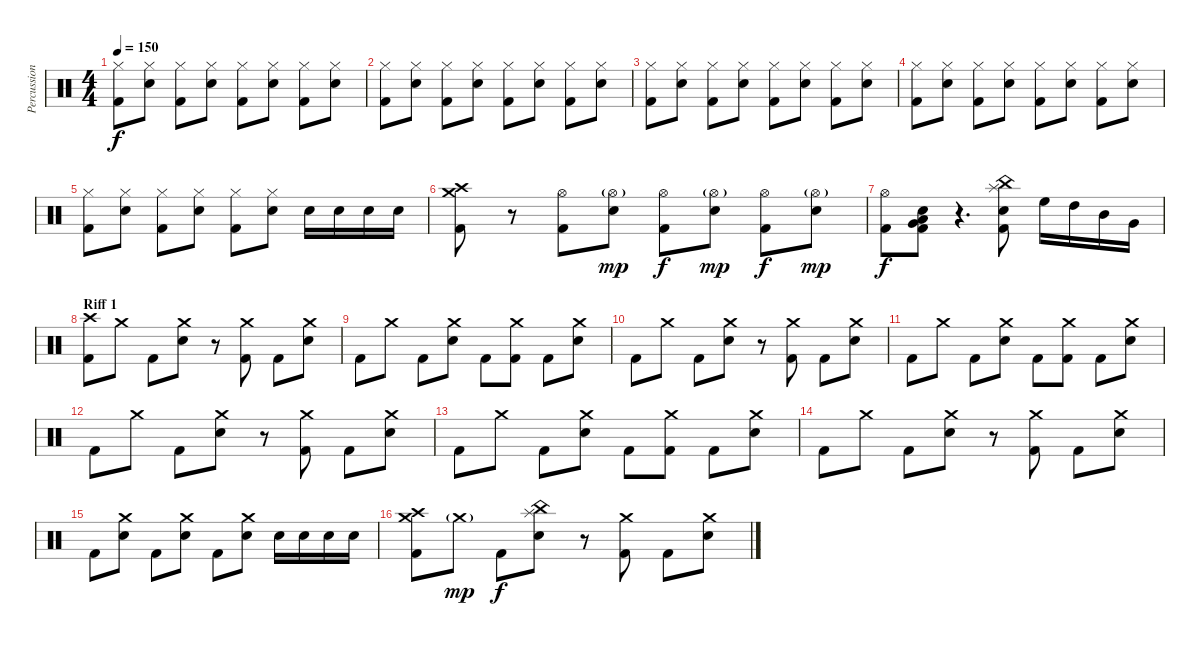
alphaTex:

\track ("Percussion" "Percussion") {instrument percussion}
\staff {score}
\articulation defaults
\ts (4 4)
\tempo 150
\clef neutral
\ks c
("Hi-Hat (closed)" "Kick (hit) 2").8{dy f} ("Hi-Hat (closed)" "Electric Snare (hit)").8 ("Hi-Hat (closed)" "Kick (hit) 2").8 ("Hi-Hat (closed)" "Electric Snare (hit)").8 ("Hi-Hat (closed)" "Kick (hit) 2").8 ("Hi-Hat (closed)" "Electric Snare (hit)").8 ("Hi-Hat (closed)" "Kick (hit) 2").8 ("Hi-Hat (closed)" "Electric Snare (hit)").8 |
("Hi-Hat (closed)" "Kick (hit) 2").8 ("Hi-Hat (closed)" "Electric Snare (hit)").8 ("Hi-Hat (closed)" "Kick (hit) 2").8 ("Hi-Hat (closed)" "Electric Snare (hit)").8 ("Hi-Hat (closed)" "Kick (hit) 2").8 ("Hi-Hat (closed)" "Electric Snare (hit)").8 ("Hi-Hat (closed)" "Kick (hit) 2").8 ("Hi-Hat (closed)" "Electric Snare (hit)").8 |
("Hi-Hat (closed)" "Kick (hit) 2").8 ("Hi-Hat (closed)" "Electric Snare (hit)").8 ("Hi-Hat (closed)" "Kick (hit) 2").8 ("Hi-Hat (closed)" "Electric Snare (hit)").8 ("Hi-Hat (closed)" "Kick (hit) 2").8 ("Hi-Hat (closed)" "Electric Snare (hit)").8 ("Hi-Hat (closed)" "Kick (hit) 2").8 ("Hi-Hat (closed)" "Electric Snare (hit)").8 |
("Hi-Hat (closed)" "Kick (hit) 2").8 ("Hi-Hat (closed)" "Electric Snare (hit)").8 ("Hi-Hat (closed)" "Kick (hit) 2").8 ("Hi-Hat (closed)" "Electric Snare (hit)").8 ("Hi-Hat (closed)" "Kick (hit) 2").8 ("Hi-Hat (closed)" "Electric Snare (hit)").8 ("Hi-Hat (closed)" "Kick (hit) 2").8 ("Hi-Hat (closed)" "Electric Snare (hit)").8 |
("Hi-Hat (closed)" "Kick (hit) 2").8 ("Hi-Hat (closed)" "Electric Snare (hit)").8 ("Hi-Hat (closed)" "Kick (hit) 2").8 ("Hi-Hat (closed)" "Electric Snare (hit)").8 ("Hi-Hat (closed)" "Kick (hit) 2").8 ("Hi-Hat (closed)" "Electric Snare (hit)").8 "Electric Snare (hit)".16 "Electric Snare (hit)".16 "Electric Snare (hit)".16 "Electric Snare (hit)".16 |
("Crash medium (hit)" "Crash high (hit)" "Kick (hit) 2").8 r.8 ("Hi-Hat (open)" "Kick (hit) 2").8 ("Hi-Hat (open)"{g} "Electric Snare (hit)").8{dy mp} ("Hi-Hat (open)" "Kick (hit) 2").8{dy f} ("Hi-Hat (open)"{g} "Electric Snare (hit)").8{dy mp} ("Hi-Hat (open)" "Kick (hit) 2").8{dy f} ("Hi-Hat (open)"{g} "Electric Snare (hit)").8{dy mp} |
("Hi-Hat (open)" "Kick (hit) 2").8{dy f} ("Electric Snare (hit)" "Very Low Tom (hit)" "Low Floor Tom (hit)" "Kick (hit) 2").8 r.4{d} ("Splash (hit)" "China (hit)" "Electric Snare (hit)" "Kick (hit) 2").8 "High Floor Tom (hit)".16 "High Tom (hit)".16 "Mid Tom (hit)".16 "Very Low Tom (hit)".16 |
\section ("" "Riff 1")
("Crash high (hit)" "Kick (hit) 2").8 "Crash medium (hit)".8 "Kick (hit) 2".8 ("Crash medium (hit)" "Electric Snare (hit)").8 r.8 ("Crash medium (hit)" "Kick (hit) 2").8 "Kick (hit) 2".8 ("Crash medium (hit)" "Electric Snare (hit)").8 |
"Kick (hit) 2".8 "Crash medium (hit)".8 "Kick (hit) 2".8 ("Crash medium (hit)" "Electric Snare (hit)").8 "Kick (hit) 2".8 ("Crash medium (hit)" "Kick (hit) 2").8 "Kick (hit) 2".8 ("Crash medium (hit)" "Electric Snare (hit)").8 |
"Kick (hit) 2".8 "Crash medium (hit)".8 "Kick (hit) 2".8 ("Crash medium (hit)" "Electric Snare (hit)").8 r.8 ("Crash medium (hit)" "Kick (hit) 2").8 "Kick (hit) 2".8 ("Crash medium (hit)" "Electric Snare (hit)").8 |
"Kick (hit) 2".8 "Crash medium (hit)".8 "Kick (hit) 2".8 ("Crash medium (hit)" "Electric Snare (hit)").8 "Kick (hit) 2".8 ("Crash medium (hit)" "Kick (hit) 2").8 "Kick (hit) 2".8 ("Crash medium (hit)" "Electric Snare (hit)").8 |
"Kick (hit) 2".8 "Crash medium (hit)".8 "Kick (hit) 2".8 ("Crash medium (hit)" "Electric Snare (hit)").8 r.8 ("Crash medium (hit)" "Kick (hit) 2").8 "Kick (hit) 2".8 ("Crash medium (hit)" "Electric Snare (hit)").8 |
"Kick (hit) 2".8 "Crash medium (hit)".8 "Kick (hit) 2".8 ("Crash medium (hit)" "Electric Snare (hit)").8 "Kick (hit) 2".8 ("Crash medium (hit)" "Kick (hit) 2").8 "Kick (hit) 2".8 ("Crash medium (hit)" "Electric Snare (hit)").8 |
"Kick (hit) 2".8 "Crash medium (hit)".8 "Kick (hit) 2".8 ("Crash medium (hit)" "Electric Snare (hit)").8 r.8 ("Crash medium (hit)" "Kick (hit) 2").8 "Kick (hit) 2".8 ("Crash medium (hit)" "Electric Snare (hit)").8 |
"Kick (hit) 2".8 ("Crash medium (hit)" "Electric Snare (hit)").8 "Kick (hit) 2".8 ("Crash medium (hit)" "Electric Snare (hit)").8 "Kick (hit) 2".8 ("Crash medium (hit)" "Electric Snare (hit)").8 "Electric Snare (hit)".16 "Electric Snare (hit)".16 "Electric Snare (hit)".16 "Electric Snare (hit)".16 |
("Crash medium (hit)" "Crash high (hit)" "Kick (hit) 2").8 "Crash medium (hit)"{g}.8{dy mp} "Kick (hit) 2".8{dy f} ("China (hit)" "Splash (hit)" "Electric Snare (hit)").8 r.8 ("Crash medium (hit)" "Kick (hit) 2").8 "Kick (hit) 2".8 ("Crash medium (hit)" "Electric Snare (hit)").8
